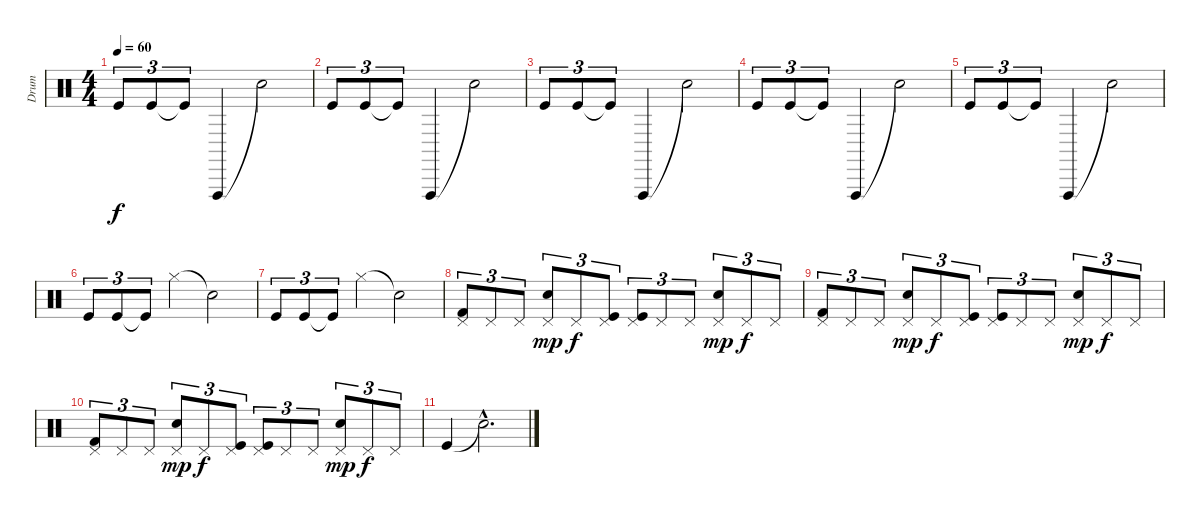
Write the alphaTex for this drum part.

\track ("Drum" "Drum") {instrument percussion}
\staff {score}
\articulation defaults
\ts (4 4)
\tempo 60
\clef neutral
\ks c "Kick (hit)".8{tu (3 2) dy f} "Kick (hit)".8{tu (3 2)} "Kick (hit)"{t}.8{tu (3 2)} "Vibraslap (hit)".4 "Snare (hit)"{t}.2
|
"Kick (hit)".8{tu (3 2)} "Kick (hit)".8{tu (3 2)} "Kick (hit)"{t}.8{tu (3 2)} "Vibraslap (hit)".4 "Snare (hit)"{t}.2 |
"Kick (hit)".8{tu (3 2)} "Kick (hit)".8{tu (3 2)} "Kick (hit)"{t}.8{tu (3 2)} "Vibraslap (hit)".4 "Snare (hit)"{t}.2 |
"Kick (hit)".8{tu (3 2)} "Kick (hit)".8{tu (3 2)} "Kick (hit)"{t}.8{tu (3 2)} "Vibraslap (hit)".4 "Snare (hit)"{t}.2 |
"Kick (hit)".8{tu (3 2)} "Kick (hit)".8{tu (3 2)} "Kick (hit)"{t}.8{tu (3 2)} "Vibraslap (hit)".4 "Snare (hit)"{t}.2 |
"Kick (hit)".8{tu (3 2)} "Kick (hit)".8{tu (3 2)} "Kick (hit)"{t}.8{tu (3 2)} "Hi-Hat (closed)".4 "Snare (hit)"{t}.2 |
"Kick (hit)".8{tu (3 2)} "Kick (hit)".8{tu (3 2)} "Kick (hit)"{t}.8{tu (3 2)} "Hi-Hat (closed)".4 "Snare (hit)"{t}.2 |
("Kick (hit) 2" "Pedal Hi-Hat (hit)").8{tu (3 2)} "Pedal Hi-Hat (hit)".8{tu (3 2)} "Pedal Hi-Hat (hit)".8{tu (3 2)} ("Snare (hit) 2" "Pedal Hi-Hat (hit)").8{tu (3 2) dy mp} "Pedal Hi-Hat (hit)".8{tu (3 2) dy f} ("Kick (hit)" "Pedal Hi-Hat (hit)").8{tu (3 2)} ("Kick (hit)" "Pedal Hi-Hat (hit)").8{tu (3 2)} "Pedal Hi-Hat (hit)".8{tu (3 2)} "Pedal Hi-Hat (hit)".8{tu (3 2)} ("Snare (hit) 2" "Pedal Hi-Hat (hit)").8{tu (3 2) dy mp} "Pedal Hi-Hat (hit)".8{tu (3 2) dy f} "Pedal Hi-Hat (hit)".8{tu (3 2)} |
("Kick (hit) 2" "Pedal Hi-Hat (hit)").8{tu (3 2)} "Pedal Hi-Hat (hit)".8{tu (3 2)} "Pedal Hi-Hat (hit)".8{tu (3 2)} ("Snare (hit) 2" "Pedal Hi-Hat (hit)").8{tu (3 2) dy mp} "Pedal Hi-Hat (hit)".8{tu (3 2) dy f} ("Kick (hit)" "Pedal Hi-Hat (hit)").8{tu (3 2)} ("Kick (hit)" "Pedal Hi-Hat (hit)").8{tu (3 2)} "Pedal Hi-Hat (hit)".8{tu (3 2)} "Pedal Hi-Hat (hit)".8{tu (3 2)} ("Snare (hit) 2" "Pedal Hi-Hat (hit)").8{tu (3 2) dy mp} "Pedal Hi-Hat (hit)".8{tu (3 2) dy f} "Pedal Hi-Hat (hit)".8{tu (3 2)} |
("Kick (hit) 2" "Pedal Hi-Hat (hit)").8{tu (3 2)} "Pedal Hi-Hat (hit)".8{tu (3 2)} "Pedal Hi-Hat (hit)".8{tu (3 2)} ("Snare (hit) 2" "Pedal Hi-Hat (hit)").8{tu (3 2) dy mp} "Pedal Hi-Hat (hit)".8{tu (3 2) dy f} ("Kick (hit)" "Pedal Hi-Hat (hit)").8{tu (3 2)} ("Kick (hit)" "Pedal Hi-Hat (hit)").8{tu (3 2)} "Pedal Hi-Hat (hit)".8{tu (3 2)} "Pedal Hi-Hat (hit)".8{tu (3 2)} ("Snare (hit) 2" "Pedal Hi-Hat (hit)").8{tu (3 2) dy mp} "Pedal Hi-Hat (hit)".8{tu (3 2) dy f} "Pedal Hi-Hat (hit)".8{tu (3 2)} |
"Kick (hit)".4 "Snare (hit)"{hac t}.2{d}
